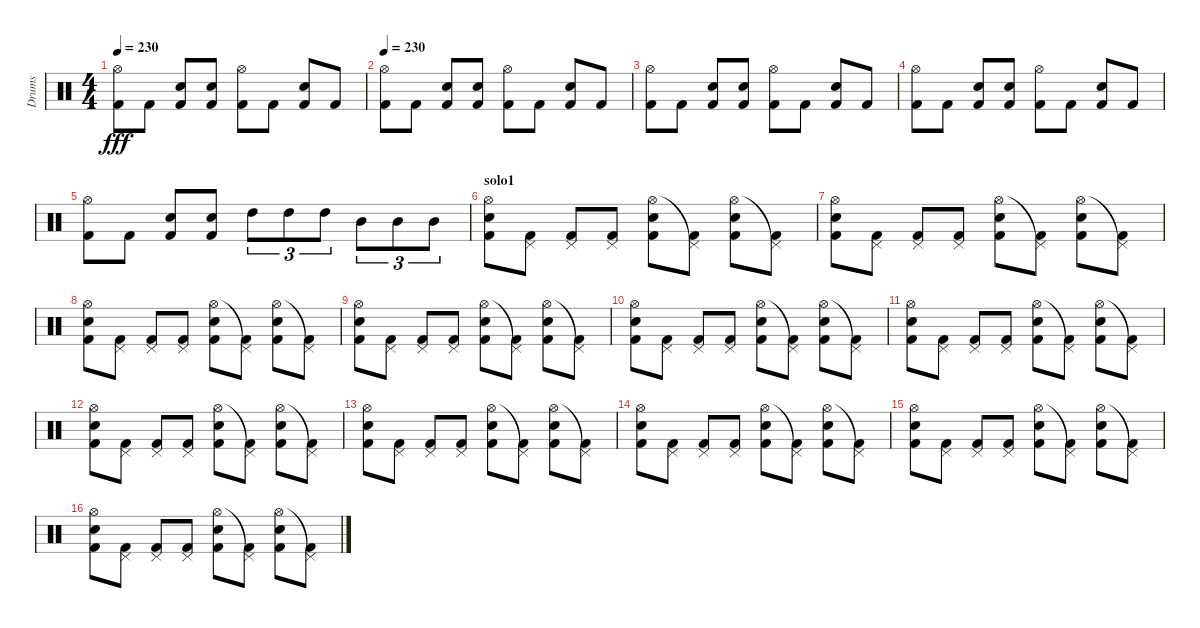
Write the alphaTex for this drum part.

\track ("Drums" "Drums") {instrument percussion}
\staff {score}
\articulation defaults
\ts (4 4)
\tempo 230
\clef neutral
\ks c
("Hi-Hat (open)" "Kick (hit) 2").8{dy fff} "Kick (hit) 2".8 ("Snare (hit) 2" "Kick (hit) 2").8 ("Snare (hit) 2" "Kick (hit) 2").8 ("Hi-Hat (open)" "Kick (hit) 2").8 "Kick (hit) 2".8 ("Snare (hit) 2" "Kick (hit) 2").8 "Kick (hit) 2".8 |
\tempo 230
("Hi-Hat (open)" "Kick (hit) 2").8 "Kick (hit) 2".8 ("Snare (hit) 2" "Kick (hit) 2").8 ("Snare (hit) 2" "Kick (hit) 2").8 ("Hi-Hat (open)" "Kick (hit) 2").8 "Kick (hit) 2".8 ("Snare (hit) 2" "Kick (hit) 2").8 "Kick (hit) 2".8 |
("Hi-Hat (open)" "Kick (hit) 2").8 "Kick (hit) 2".8 ("Snare (hit) 2" "Kick (hit) 2").8 ("Snare (hit) 2" "Kick (hit) 2").8 ("Hi-Hat (open)" "Kick (hit) 2").8 "Kick (hit) 2".8 ("Snare (hit) 2" "Kick (hit) 2").8 "Kick (hit) 2".8 |
("Hi-Hat (open)" "Kick (hit) 2").8 "Kick (hit) 2".8 ("Snare (hit) 2" "Kick (hit) 2").8 ("Snare (hit) 2" "Kick (hit) 2").8 ("Hi-Hat (open)" "Kick (hit) 2").8 "Kick (hit) 2".8 ("Snare (hit) 2" "Kick (hit) 2").8 "Kick (hit) 2".8 |
("Hi-Hat (open)" "Kick (hit) 2").8 "Kick (hit) 2".8 ("Snare (hit) 2" "Kick (hit) 2").8 ("Snare (hit) 2" "Kick (hit) 2").8 "High Tom (hit)".8{tu (3 2)} "High Tom (hit)".8{tu (3 2)} "High Tom (hit)".8{tu (3 2)} "Mid Tom (hit)".8{tu (3 2)} "Mid Tom (hit)".8{tu (3 2)} "Mid Tom (hit)".8{tu (3 2)} |
\section ("" "solo1")
("Kick (hit) 2" "Hi-Hat (open)" "Electric Snare (hit)").8 ("Kick (hit) 2" "Pedal Hi-Hat (hit)").8 ("Kick (hit) 2" "Pedal Hi-Hat (hit)").8 ("Kick (hit) 2" "Pedal Hi-Hat (hit)").8 ("Kick (hit) 2" "Hi-Hat (open)" "Electric Snare (hit)").8 ("Kick (hit) 2" "Pedal Hi-Hat (hit)"{t}).8 ("Kick (hit) 2" "Hi-Hat (open)" "Electric Snare (hit)").8 ("Kick (hit) 2" "Pedal Hi-Hat (hit)"{t}).8 |
("Kick (hit) 2" "Hi-Hat (open)" "Electric Snare (hit)").8 ("Kick (hit) 2" "Pedal Hi-Hat (hit)").8 ("Kick (hit) 2" "Pedal Hi-Hat (hit)").8 ("Kick (hit) 2" "Pedal Hi-Hat (hit)").8 ("Kick (hit) 2" "Hi-Hat (open)" "Electric Snare (hit)").8 ("Kick (hit) 2" "Pedal Hi-Hat (hit)"{t}).8 ("Kick (hit) 2" "Hi-Hat (open)" "Electric Snare (hit)").8 ("Kick (hit) 2" "Pedal Hi-Hat (hit)"{t}).8 |
("Kick (hit) 2" "Hi-Hat (open)" "Electric Snare (hit)").8 ("Kick (hit) 2" "Pedal Hi-Hat (hit)").8 ("Kick (hit) 2" "Pedal Hi-Hat (hit)").8 ("Kick (hit) 2" "Pedal Hi-Hat (hit)").8 ("Kick (hit) 2" "Hi-Hat (open)" "Electric Snare (hit)").8 ("Kick (hit) 2" "Pedal Hi-Hat (hit)"{t}).8 ("Kick (hit) 2" "Hi-Hat (open)" "Electric Snare (hit)").8 ("Kick (hit) 2" "Pedal Hi-Hat (hit)"{t}).8 |
("Kick (hit) 2" "Hi-Hat (open)" "Electric Snare (hit)").8 ("Kick (hit) 2" "Pedal Hi-Hat (hit)").8 ("Kick (hit) 2" "Pedal Hi-Hat (hit)").8 ("Kick (hit) 2" "Pedal Hi-Hat (hit)").8 ("Kick (hit) 2" "Hi-Hat (open)" "Electric Snare (hit)").8 ("Kick (hit) 2" "Pedal Hi-Hat (hit)"{t}).8 ("Kick (hit) 2" "Hi-Hat (open)" "Electric Snare (hit)").8 ("Kick (hit) 2" "Pedal Hi-Hat (hit)"{t}).8 |
("Kick (hit) 2" "Hi-Hat (open)" "Electric Snare (hit)").8 ("Kick (hit) 2" "Pedal Hi-Hat (hit)").8 ("Kick (hit) 2" "Pedal Hi-Hat (hit)").8 ("Kick (hit) 2" "Pedal Hi-Hat (hit)").8 ("Kick (hit) 2" "Hi-Hat (open)" "Electric Snare (hit)").8 ("Kick (hit) 2" "Pedal Hi-Hat (hit)"{t}).8 ("Kick (hit) 2" "Hi-Hat (open)" "Electric Snare (hit)").8 ("Kick (hit) 2" "Pedal Hi-Hat (hit)"{t}).8 |
("Kick (hit) 2" "Hi-Hat (open)" "Electric Snare (hit)").8 ("Kick (hit) 2" "Pedal Hi-Hat (hit)").8 ("Kick (hit) 2" "Pedal Hi-Hat (hit)").8 ("Kick (hit) 2" "Pedal Hi-Hat (hit)").8 ("Kick (hit) 2" "Hi-Hat (open)" "Electric Snare (hit)").8 ("Kick (hit) 2" "Pedal Hi-Hat (hit)"{t}).8 ("Kick (hit) 2" "Hi-Hat (open)" "Electric Snare (hit)").8 ("Kick (hit) 2" "Pedal Hi-Hat (hit)"{t}).8 |
("Kick (hit) 2" "Hi-Hat (open)" "Electric Snare (hit)").8 ("Kick (hit) 2" "Pedal Hi-Hat (hit)").8 ("Kick (hit) 2" "Pedal Hi-Hat (hit)").8 ("Kick (hit) 2" "Pedal Hi-Hat (hit)").8 ("Kick (hit) 2" "Hi-Hat (open)" "Electric Snare (hit)").8 ("Kick (hit) 2" "Pedal Hi-Hat (hit)"{t}).8 ("Kick (hit) 2" "Hi-Hat (open)" "Electric Snare (hit)").8 ("Kick (hit) 2" "Pedal Hi-Hat (hit)"{t}).8 |
("Kick (hit) 2" "Hi-Hat (open)" "Electric Snare (hit)").8 ("Kick (hit) 2" "Pedal Hi-Hat (hit)").8 ("Kick (hit) 2" "Pedal Hi-Hat (hit)").8 ("Kick (hit) 2" "Pedal Hi-Hat (hit)").8 ("Kick (hit) 2" "Hi-Hat (open)" "Electric Snare (hit)").8 ("Kick (hit) 2" "Pedal Hi-Hat (hit)"{t}).8 ("Kick (hit) 2" "Hi-Hat (open)" "Electric Snare (hit)").8 ("Kick (hit) 2" "Pedal Hi-Hat (hit)"{t}).8 |
("Kick (hit) 2" "Hi-Hat (open)" "Electric Snare (hit)").8 ("Kick (hit) 2" "Pedal Hi-Hat (hit)").8 ("Kick (hit) 2" "Pedal Hi-Hat (hit)").8 ("Kick (hit) 2" "Pedal Hi-Hat (hit)").8 ("Kick (hit) 2" "Hi-Hat (open)" "Electric Snare (hit)").8 ("Kick (hit) 2" "Pedal Hi-Hat (hit)"{t}).8 ("Kick (hit) 2" "Hi-Hat (open)" "Electric Snare (hit)").8 ("Kick (hit) 2" "Pedal Hi-Hat (hit)"{t}).8 |
("Kick (hit) 2" "Hi-Hat (open)" "Electric Snare (hit)").8 ("Kick (hit) 2" "Pedal Hi-Hat (hit)").8 ("Kick (hit) 2" "Pedal Hi-Hat (hit)").8 ("Kick (hit) 2" "Pedal Hi-Hat (hit)").8 ("Kick (hit) 2" "Hi-Hat (open)" "Electric Snare (hit)").8 ("Kick (hit) 2" "Pedal Hi-Hat (hit)"{t}).8 ("Kick (hit) 2" "Hi-Hat (open)" "Electric Snare (hit)").8 ("Kick (hit) 2" "Pedal Hi-Hat (hit)"{t}).8 |
("Kick (hit) 2" "Hi-Hat (open)" "Electric Snare (hit)").8 ("Kick (hit) 2" "Pedal Hi-Hat (hit)").8 ("Kick (hit) 2" "Pedal Hi-Hat (hit)").8 ("Kick (hit) 2" "Pedal Hi-Hat (hit)").8 ("Kick (hit) 2" "Hi-Hat (open)" "Electric Snare (hit)").8 ("Kick (hit) 2" "Pedal Hi-Hat (hit)"{t}).8 ("Kick (hit) 2" "Hi-Hat (open)" "Electric Snare (hit)").8 ("Kick (hit) 2" "Pedal Hi-Hat (hit)"{t}).8
